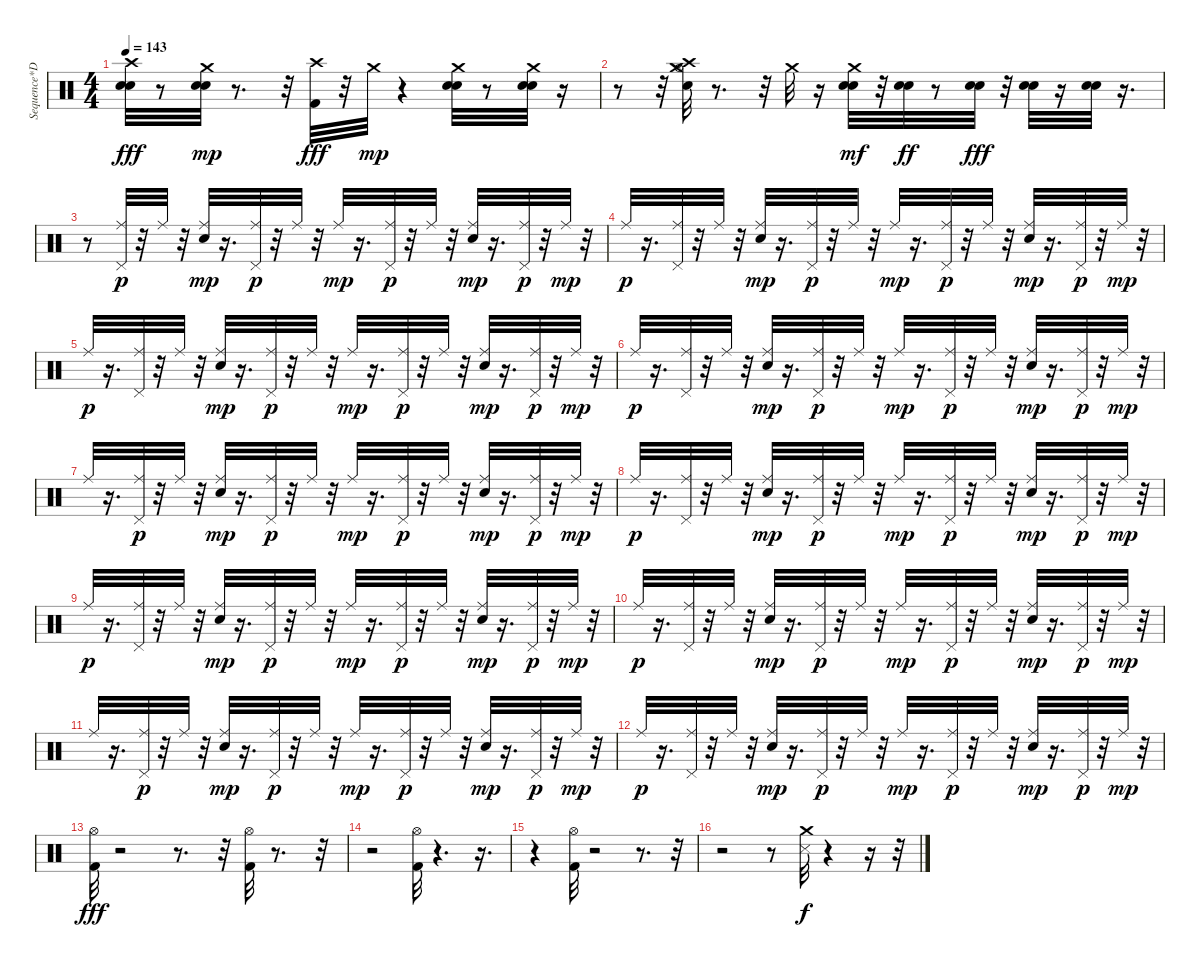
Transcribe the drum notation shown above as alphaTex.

\track ("Sequence*Demixed 10" "Sequence*D") {instrument percussion}
\staff {score}
\articulation defaults
\ts (4 4)
\tempo 143
\clef neutral
\ks c
("Metronome (bell)" "Electric Snare (hit)" "Crash high (hit)").32{dy fff} r.8 ("Metronome (bell)" "Electric Snare (hit)" "Crash medium (hit)").32{dy mp} r.8{d} r.32 ("Crash high (hit)" "Kick (hit) 2").32{dy fff} r.32 "Crash medium (hit)".32{dy mp} r.4 ("Metronome (bell)" "Electric Snare (hit)" "Crash medium (hit)").32 r.8 ("Metronome (bell)" "Electric Snare (hit)" "Crash medium (hit)").32 r.16 |
r.8 r.32 ("Crash high (hit)" "Electric Snare (hit)" "Hi-Hat (open)" "Crash medium (hit)").32 r.8{d} r.32 "Crash medium (hit)".32 r.16 ("Metronome (bell)" "Electric Snare (hit)" "Crash medium (hit)").32{dy mf} r.32 ("Metronome (bell)" "Electric Snare (hit)").32{dy ff} r.8 ("Metronome (bell)" "Electric Snare (hit)").32{dy fff} r.32 ("Metronome (bell)" "Electric Snare (hit)").32 r.16 ("Metronome (bell)" "Electric Snare (hit)").32 r.16{d} |
r.8 ("Pedal Hi-Hat (hit)" "Ride (middle)").32{dy p} r.32 "Ride (middle)".32 r.32 ("Electric Snare (hit)" "Ride (middle)").32{dy mp} r.16{d} ("Pedal Hi-Hat (hit)" "Ride (middle)").32{dy p} r.32 "Ride (middle)".32 r.32 "Ride (middle)".32{dy mp} r.16{d} ("Pedal Hi-Hat (hit)" "Ride (middle)").32{dy p} r.32 "Ride (middle)".32 r.32 ("Electric Snare (hit)" "Ride (middle)").32{dy mp} r.16{d} ("Pedal Hi-Hat (hit)" "Ride (middle)").32{dy p} r.32 "Ride (middle)".32{dy mp} r.32 |
"Ride (middle)".32{dy p} r.16{d} ("Pedal Hi-Hat (hit)" "Ride (middle)").32 r.32 "Ride (middle)".32 r.32 ("Electric Snare (hit)" "Ride (middle)").32{dy mp} r.16{d} ("Pedal Hi-Hat (hit)" "Ride (middle)").32{dy p} r.32 "Ride (middle)".32 r.32 "Ride (middle)".32{dy mp} r.16{d} ("Pedal Hi-Hat (hit)" "Ride (middle)").32{dy p} r.32 "Ride (middle)".32 r.32 ("Electric Snare (hit)" "Ride (middle)").32{dy mp} r.16{d} ("Pedal Hi-Hat (hit)" "Ride (middle)").32{dy p} r.32 "Ride (middle)".32{dy mp} r.32 |
"Ride (middle)".32{dy p} r.16{d} ("Pedal Hi-Hat (hit)" "Ride (middle)").32 r.32 "Ride (middle)".32 r.32 ("Electric Snare (hit)" "Ride (middle)").32{dy mp} r.16{d} ("Pedal Hi-Hat (hit)" "Ride (middle)").32{dy p} r.32 "Ride (middle)".32 r.32 "Ride (middle)".32{dy mp} r.16{d} ("Pedal Hi-Hat (hit)" "Ride (middle)").32{dy p} r.32 "Ride (middle)".32 r.32 ("Electric Snare (hit)" "Ride (middle)").32{dy mp} r.16{d} ("Pedal Hi-Hat (hit)" "Ride (middle)").32{dy p} r.32 "Ride (middle)".32{dy mp} r.32 |
"Ride (middle)".32{dy p} r.16{d} ("Pedal Hi-Hat (hit)" "Ride (middle)").32 r.32 "Ride (middle)".32 r.32 ("Electric Snare (hit)" "Ride (middle)").32{dy mp} r.16{d} ("Pedal Hi-Hat (hit)" "Ride (middle)").32{dy p} r.32 "Ride (middle)".32 r.32 "Ride (middle)".32{dy mp} r.16{d} ("Pedal Hi-Hat (hit)" "Ride (middle)").32{dy p} r.32 "Ride (middle)".32 r.32 ("Electric Snare (hit)" "Ride (middle)").32{dy mp} r.16{d} ("Pedal Hi-Hat (hit)" "Ride (middle)").32{dy p} r.32 "Ride (middle)".32{dy mp} r.32 |
"Ride (middle)".32 r.16{d} ("Pedal Hi-Hat (hit)" "Ride (middle)").32{dy p} r.32 "Ride (middle)".32 r.32 ("Electric Snare (hit)" "Ride (middle)").32{dy mp} r.16{d} ("Pedal Hi-Hat (hit)" "Ride (middle)").32{dy p} r.32 "Ride (middle)".32 r.32 "Ride (middle)".32{dy mp} r.16{d} ("Pedal Hi-Hat (hit)" "Ride (middle)").32{dy p} r.32 "Ride (middle)".32 r.32 ("Electric Snare (hit)" "Ride (middle)").32{dy mp} r.16{d} ("Pedal Hi-Hat (hit)" "Ride (middle)").32{dy p} r.32 "Ride (middle)".32{dy mp} r.32 |
"Ride (middle)".32{dy p} r.16{d} ("Pedal Hi-Hat (hit)" "Ride (middle)").32 r.32 "Ride (middle)".32 r.32 ("Electric Snare (hit)" "Ride (middle)").32{dy mp} r.16{d} ("Pedal Hi-Hat (hit)" "Ride (middle)").32{dy p} r.32 "Ride (middle)".32 r.32 "Ride (middle)".32{dy mp} r.16{d} ("Pedal Hi-Hat (hit)" "Ride (middle)").32{dy p} r.32 "Ride (middle)".32 r.32 ("Electric Snare (hit)" "Ride (middle)").32{dy mp} r.16{d} ("Pedal Hi-Hat (hit)" "Ride (middle)").32{dy p} r.32 "Ride (middle)".32{dy mp} r.32 |
"Ride (middle)".32{dy p} r.16{d} ("Pedal Hi-Hat (hit)" "Ride (middle)").32 r.32 "Ride (middle)".32 r.32 ("Electric Snare (hit)" "Ride (middle)").32{dy mp} r.16{d} ("Pedal Hi-Hat (hit)" "Ride (middle)").32{dy p} r.32 "Ride (middle)".32 r.32 "Ride (middle)".32{dy mp} r.16{d} ("Pedal Hi-Hat (hit)" "Ride (middle)").32{dy p} r.32 "Ride (middle)".32 r.32 ("Electric Snare (hit)" "Ride (middle)").32{dy mp} r.16{d} ("Pedal Hi-Hat (hit)" "Ride (middle)").32{dy p} r.32 "Ride (middle)".32{dy mp} r.32 |
"Ride (middle)".32{dy p} r.16{d} ("Pedal Hi-Hat (hit)" "Ride (middle)").32 r.32 "Ride (middle)".32 r.32 ("Electric Snare (hit)" "Ride (middle)").32{dy mp} r.16{d} ("Pedal Hi-Hat (hit)" "Ride (middle)").32{dy p} r.32 "Ride (middle)".32 r.32 "Ride (middle)".32{dy mp} r.16{d} ("Pedal Hi-Hat (hit)" "Ride (middle)").32{dy p} r.32 "Ride (middle)".32 r.32 ("Electric Snare (hit)" "Ride (middle)").32{dy mp} r.16{d} ("Pedal Hi-Hat (hit)" "Ride (middle)").32{dy p} r.32 "Ride (middle)".32{dy mp} r.32 |
"Ride (middle)".32 r.16{d} ("Pedal Hi-Hat (hit)" "Ride (middle)").32{dy p} r.32 "Ride (middle)".32 r.32 ("Electric Snare (hit)" "Ride (middle)").32{dy mp} r.16{d} ("Pedal Hi-Hat (hit)" "Ride (middle)").32{dy p} r.32 "Ride (middle)".32 r.32 "Ride (middle)".32{dy mp} r.16{d} ("Pedal Hi-Hat (hit)" "Ride (middle)").32{dy p} r.32 "Ride (middle)".32 r.32 ("Electric Snare (hit)" "Ride (middle)").32{dy mp} r.16{d} ("Pedal Hi-Hat (hit)" "Ride (middle)").32{dy p} r.32 "Ride (middle)".32{dy mp} r.32 |
"Ride (middle)".32{dy p} r.16{d} ("Pedal Hi-Hat (hit)" "Ride (middle)").32 r.32 "Ride (middle)".32 r.32 ("Electric Snare (hit)" "Ride (middle)").32{dy mp} r.16{d} ("Pedal Hi-Hat (hit)" "Ride (middle)").32{dy p} r.32 "Ride (middle)".32 r.32 "Ride (middle)".32{dy mp} r.16{d} ("Pedal Hi-Hat (hit)" "Ride (middle)").32{dy p} r.32 "Ride (middle)".32 r.32 ("Electric Snare (hit)" "Ride (middle)").32{dy mp} r.16{d} ("Pedal Hi-Hat (hit)" "Ride (middle)").32{dy p} r.32 "Ride (middle)".32{dy mp} r.32 |
("Kick (hit) 2" "Hi-Hat (open)").32{dy fff} r.2 r.8{d} r.32 ("Kick (hit) 2" "Hi-Hat (open)").32 r.8{d} r.32 |
r.2 ("Kick (hit) 2" "Hi-Hat (open)").32 r.4{d} r.16{d} |
r.4 ("Kick (hit) 2" "Hi-Hat (open)").32 r.2 r.8{d} r.32 |
r.2 r.8 ("Metronome (hit)" "Crash medium (hit)").32{dy f} r.4 r.16 r.32
